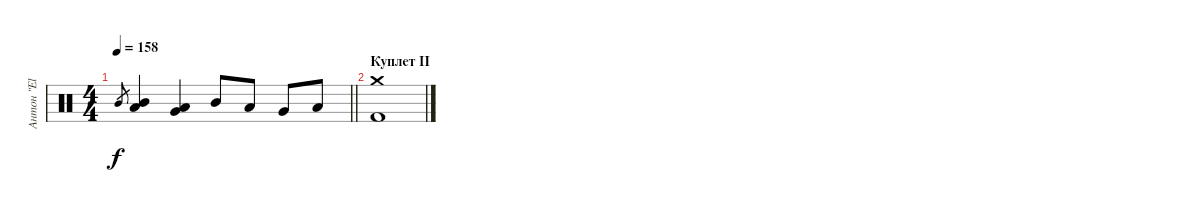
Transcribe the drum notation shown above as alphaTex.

\track ("Антон \"El Bastardo\" Смольянин" "Антон \"El ") {instrument percussion}
\staff {score}
\articulation defaults
\ts (4 4)
\tempo 158
\clef neutral
\barLineRight lightlight
\ks c "Mid Tom (hit)".8{gr dy f}
("Mid Tom (hit)" "Low Tom (hit)").4 ("Low Tom (hit)" "Very Low Tom (hit)").4 "Mid Tom (hit)".8 "Low Tom (hit)".8 "Very Low Tom (hit)".8 "Low Floor Tom (hit)".8 |
\section ("" "Куплет II")
("Crash medium (hit)" "Kick (hit) 2").1
